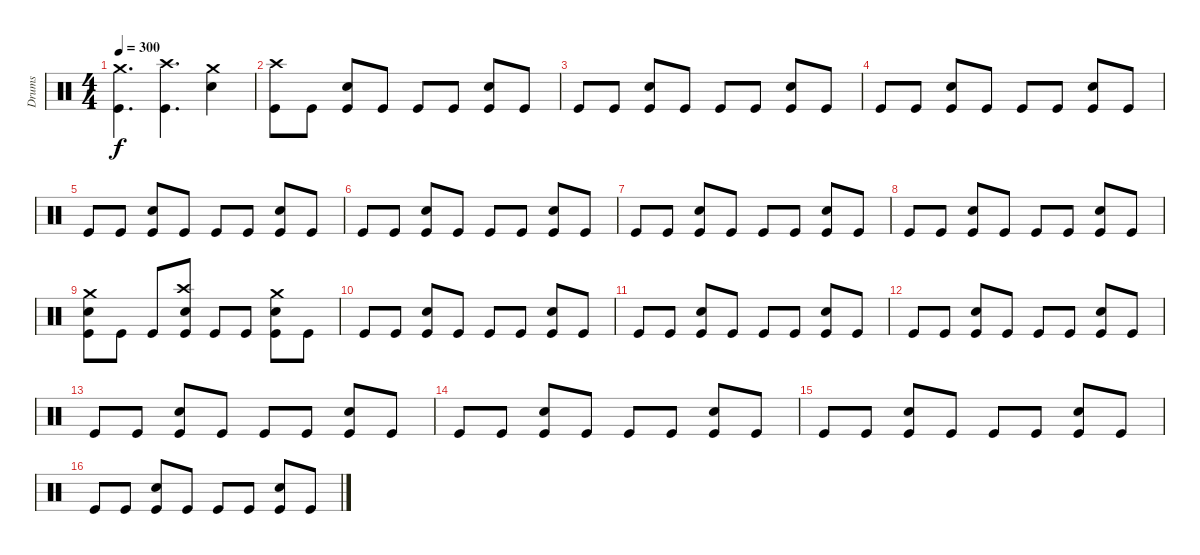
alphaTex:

\track ("Drums" "Drums") {instrument percussion}
\staff {score}
\articulation defaults
\ts (4 4)
\tempo 300
\clef neutral
\ks c
("Crash medium (hit)" "Kick (hit)").4{d dy f} ("Crash high (hit)" "Kick (hit)").4{d} ("Crash medium (hit)" "Electric Snare (hit)").4 |
("Crash high (hit)" "Kick (hit)").8 "Kick (hit)".8 ("Electric Snare (hit)" "Kick (hit)").8 "Kick (hit)".8 "Kick (hit)".8 "Kick (hit)".8 ("Electric Snare (hit)" "Kick (hit)").8 "Kick (hit)".8 |
"Kick (hit)".8 "Kick (hit)".8 ("Electric Snare (hit)" "Kick (hit)").8 "Kick (hit)".8 "Kick (hit)".8 "Kick (hit)".8 ("Electric Snare (hit)" "Kick (hit)").8 "Kick (hit)".8 |
"Kick (hit)".8 "Kick (hit)".8 ("Electric Snare (hit)" "Kick (hit)").8 "Kick (hit)".8 "Kick (hit)".8 "Kick (hit)".8 ("Electric Snare (hit)" "Kick (hit)").8 "Kick (hit)".8 |
"Kick (hit)".8 "Kick (hit)".8 ("Electric Snare (hit)" "Kick (hit)").8 "Kick (hit)".8 "Kick (hit)".8 "Kick (hit)".8 ("Electric Snare (hit)" "Kick (hit)").8 "Kick (hit)".8 |
"Kick (hit)".8 "Kick (hit)".8 ("Electric Snare (hit)" "Kick (hit)").8 "Kick (hit)".8 "Kick (hit)".8 "Kick (hit)".8 ("Electric Snare (hit)" "Kick (hit)").8 "Kick (hit)".8 |
"Kick (hit)".8 "Kick (hit)".8 ("Electric Snare (hit)" "Kick (hit)").8 "Kick (hit)".8 "Kick (hit)".8 "Kick (hit)".8 ("Electric Snare (hit)" "Kick (hit)").8 "Kick (hit)".8 |
"Kick (hit)".8 "Kick (hit)".8 ("Electric Snare (hit)" "Kick (hit)").8 "Kick (hit)".8 "Kick (hit)".8 "Kick (hit)".8 ("Electric Snare (hit)" "Kick (hit)").8 "Kick (hit)".8 |
("Crash medium (hit)" "Electric Snare (hit)" "Kick (hit)").8 "Kick (hit)".8 "Kick (hit)".8 ("Crash high (hit)" "Electric Snare (hit)" "Kick (hit)").8 "Kick (hit)".8 "Kick (hit)".8 ("Crash medium (hit)" "Electric Snare (hit)" "Kick (hit)").8 "Kick (hit)".8 |
"Kick (hit)".8 "Kick (hit)".8 ("Electric Snare (hit)" "Kick (hit)").8 "Kick (hit)".8 "Kick (hit)".8 "Kick (hit)".8 ("Electric Snare (hit)" "Kick (hit)").8 "Kick (hit)".8 |
"Kick (hit)".8 "Kick (hit)".8 ("Electric Snare (hit)" "Kick (hit)").8 "Kick (hit)".8 "Kick (hit)".8 "Kick (hit)".8 ("Electric Snare (hit)" "Kick (hit)").8 "Kick (hit)".8 |
"Kick (hit)".8 "Kick (hit)".8 ("Electric Snare (hit)" "Kick (hit)").8 "Kick (hit)".8 "Kick (hit)".8 "Kick (hit)".8 ("Electric Snare (hit)" "Kick (hit)").8 "Kick (hit)".8 |
"Kick (hit)".8 "Kick (hit)".8 ("Electric Snare (hit)" "Kick (hit)").8 "Kick (hit)".8 "Kick (hit)".8 "Kick (hit)".8 ("Electric Snare (hit)" "Kick (hit)").8 "Kick (hit)".8 |
"Kick (hit)".8 "Kick (hit)".8 ("Electric Snare (hit)" "Kick (hit)").8 "Kick (hit)".8 "Kick (hit)".8 "Kick (hit)".8 ("Electric Snare (hit)" "Kick (hit)").8 "Kick (hit)".8 |
"Kick (hit)".8 "Kick (hit)".8 ("Electric Snare (hit)" "Kick (hit)").8 "Kick (hit)".8 "Kick (hit)".8 "Kick (hit)".8 ("Electric Snare (hit)" "Kick (hit)").8 "Kick (hit)".8 |
"Kick (hit)".8 "Kick (hit)".8 ("Electric Snare (hit)" "Kick (hit)").8 "Kick (hit)".8 "Kick (hit)".8 "Kick (hit)".8 ("Electric Snare (hit)" "Kick (hit)").8 "Kick (hit)".8
